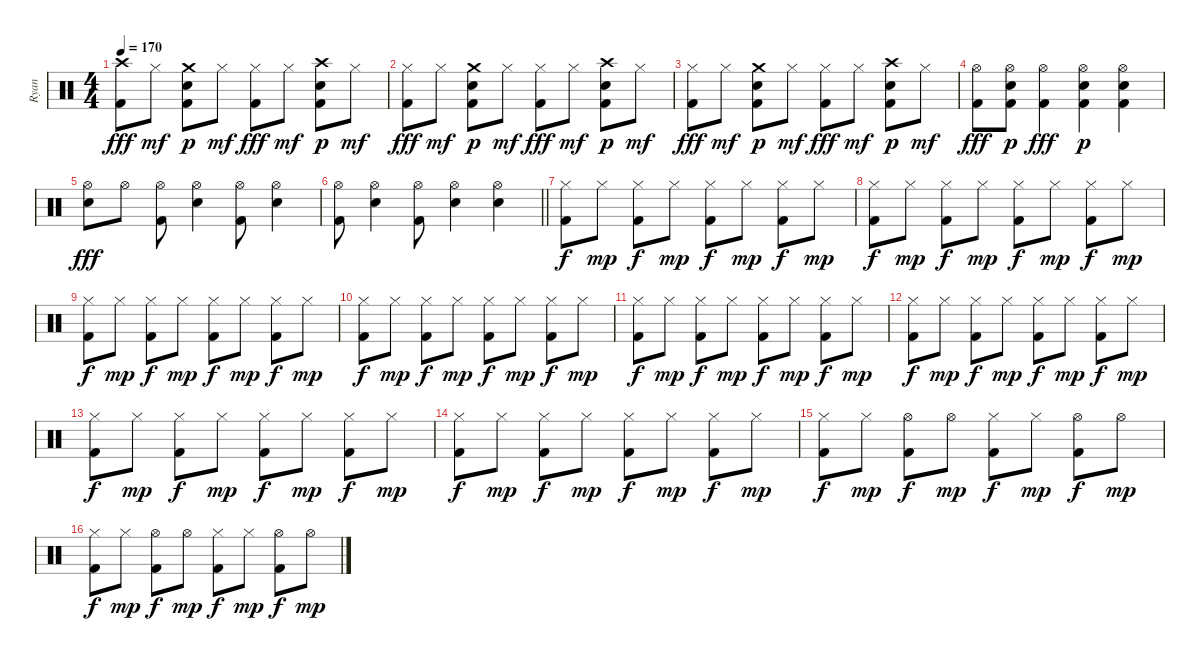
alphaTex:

\track ("Ryan" "Ryan") {instrument percussion}
\staff {score}
\articulation defaults
\ts (4 4)
\tempo 170
\clef neutral
\ks c
("Kick (hit) 2" "Crash high (hit)").8{dy fff} "Hi-Hat (closed)".8{dy mf} ("Snare (hit) 2" "Crash medium (hit)" "Kick (hit) 2").8{dy p} "Hi-Hat (closed)".8{dy mf} ("Kick (hit) 2" "Hi-Hat (closed)").8{dy fff} "Hi-Hat (closed)".8{dy mf} ("Snare (hit) 2" "Crash high (hit)" "Kick (hit) 2").8{dy p} "Hi-Hat (closed)".8{dy mf} |
("Kick (hit) 2" "Hi-Hat (closed)").8{dy fff} "Hi-Hat (closed)".8{dy mf} ("Snare (hit) 2" "Crash medium (hit)" "Kick (hit) 2").8{dy p} "Hi-Hat (closed)".8{dy mf} ("Kick (hit) 2" "Hi-Hat (closed)").8{dy fff} "Hi-Hat (closed)".8{dy mf} ("Snare (hit) 2" "Crash high (hit)" "Kick (hit) 2").8{dy p} "Hi-Hat (closed)".8{dy mf} |
("Kick (hit) 2" "Hi-Hat (closed)").8{dy fff} "Hi-Hat (closed)".8{dy mf} ("Snare (hit) 2" "Crash medium (hit)" "Kick (hit) 2").8{dy p} "Hi-Hat (closed)".8{dy mf} ("Kick (hit) 2" "Hi-Hat (closed)").8{dy fff} "Hi-Hat (closed)".8{dy mf} ("Snare (hit) 2" "Crash high (hit)" "Kick (hit) 2").8{dy p} "Hi-Hat (closed)".8{dy mf} |
("Kick (hit) 2" "Hi-Hat (open)").8{dy fff} ("Snare (hit) 2" "Hi-Hat (open)" "Kick (hit) 2").8{dy p} ("Kick (hit) 2" "Hi-Hat (open)").4{dy fff} ("Snare (hit) 2" "Hi-Hat (open)" "Kick (hit) 2").4{dy p} ("Snare (hit) 2" "Hi-Hat (open)" "Kick (hit) 2").4 |
("Hi-Hat (open)" "Snare (hit) 2").8{dy fff} "Hi-Hat (open)".8 ("Hi-Hat (open)" "Kick (hit) 2").8 ("Hi-Hat (open)" "Snare (hit) 2").4 ("Hi-Hat (open)" "Kick (hit) 2").8 ("Hi-Hat (open)" "Snare (hit) 2").4 |
\barLineRight lightlight
("Hi-Hat (open)" "Kick (hit) 2").8 ("Hi-Hat (open)" "Snare (hit) 2").4 ("Hi-Hat (open)" "Kick (hit) 2").8 ("Hi-Hat (open)" "Snare (hit) 2").4 ("Hi-Hat (open)" "Snare (hit) 2").4 |
("Hi-Hat (closed)" "Kick (hit) 2").8{dy f} "Hi-Hat (closed)".8{dy mp} ("Hi-Hat (closed)" "Kick (hit) 2").8{dy f} "Hi-Hat (closed)".8{dy mp} ("Hi-Hat (closed)" "Kick (hit) 2").8{dy f} "Hi-Hat (closed)".8{dy mp} ("Hi-Hat (closed)" "Kick (hit) 2").8{dy f} "Hi-Hat (closed)".8{dy mp} |
("Hi-Hat (closed)" "Kick (hit) 2").8{dy f} "Hi-Hat (closed)".8{dy mp} ("Hi-Hat (closed)" "Kick (hit) 2").8{dy f} "Hi-Hat (closed)".8{dy mp} ("Hi-Hat (closed)" "Kick (hit) 2").8{dy f} "Hi-Hat (closed)".8{dy mp} ("Hi-Hat (closed)" "Kick (hit) 2").8{dy f} "Hi-Hat (closed)".8{dy mp} |
("Hi-Hat (closed)" "Kick (hit) 2").8{dy f} "Hi-Hat (closed)".8{dy mp} ("Hi-Hat (closed)" "Kick (hit) 2").8{dy f} "Hi-Hat (closed)".8{dy mp} ("Hi-Hat (closed)" "Kick (hit) 2").8{dy f} "Hi-Hat (closed)".8{dy mp} ("Hi-Hat (closed)" "Kick (hit) 2").8{dy f} "Hi-Hat (closed)".8{dy mp} |
("Hi-Hat (closed)" "Kick (hit) 2").8{dy f} "Hi-Hat (closed)".8{dy mp} ("Hi-Hat (closed)" "Kick (hit) 2").8{dy f} "Hi-Hat (closed)".8{dy mp} ("Hi-Hat (closed)" "Kick (hit) 2").8{dy f} "Hi-Hat (closed)".8{dy mp} ("Hi-Hat (closed)" "Kick (hit) 2").8{dy f} "Hi-Hat (closed)".8{dy mp} |
("Hi-Hat (closed)" "Kick (hit) 2").8{dy f} "Hi-Hat (closed)".8{dy mp} ("Hi-Hat (closed)" "Kick (hit) 2").8{dy f} "Hi-Hat (closed)".8{dy mp} ("Hi-Hat (closed)" "Kick (hit) 2").8{dy f} "Hi-Hat (closed)".8{dy mp} ("Hi-Hat (closed)" "Kick (hit) 2").8{dy f} "Hi-Hat (closed)".8{dy mp} |
("Hi-Hat (closed)" "Kick (hit) 2").8{dy f} "Hi-Hat (closed)".8{dy mp} ("Hi-Hat (closed)" "Kick (hit) 2").8{dy f} "Hi-Hat (closed)".8{dy mp} ("Hi-Hat (closed)" "Kick (hit) 2").8{dy f} "Hi-Hat (closed)".8{dy mp} ("Hi-Hat (closed)" "Kick (hit) 2").8{dy f} "Hi-Hat (closed)".8{dy mp} |
("Hi-Hat (closed)" "Kick (hit) 2").8{dy f} "Hi-Hat (closed)".8{dy mp} ("Hi-Hat (closed)" "Kick (hit) 2").8{dy f} "Hi-Hat (closed)".8{dy mp} ("Hi-Hat (closed)" "Kick (hit) 2").8{dy f} "Hi-Hat (closed)".8{dy mp} ("Hi-Hat (closed)" "Kick (hit) 2").8{dy f} "Hi-Hat (closed)".8{dy mp} |
("Hi-Hat (closed)" "Kick (hit) 2").8{dy f} "Hi-Hat (closed)".8{dy mp} ("Hi-Hat (closed)" "Kick (hit) 2").8{dy f} "Hi-Hat (closed)".8{dy mp} ("Hi-Hat (closed)" "Kick (hit) 2").8{dy f} "Hi-Hat (closed)".8{dy mp} ("Hi-Hat (closed)" "Kick (hit) 2").8{dy f} "Hi-Hat (closed)".8{dy mp} |
("Hi-Hat (closed)" "Kick (hit) 2").8{dy f} "Hi-Hat (closed)".8{dy mp} ("Hi-Hat (open)" "Kick (hit) 2").8{dy f} "Hi-Hat (open)".8{dy mp} ("Hi-Hat (closed)" "Kick (hit) 2").8{dy f} "Hi-Hat (closed)".8{dy mp} ("Hi-Hat (open)" "Kick (hit) 2").8{dy f} "Hi-Hat (open)".8{dy mp} |
("Hi-Hat (closed)" "Kick (hit) 2").8{dy f} "Hi-Hat (closed)".8{dy mp} ("Hi-Hat (open)" "Kick (hit) 2").8{dy f} "Hi-Hat (open)".8{dy mp} ("Hi-Hat (closed)" "Kick (hit) 2").8{dy f} "Hi-Hat (closed)".8{dy mp} ("Hi-Hat (open)" "Kick (hit) 2").8{dy f} "Hi-Hat (open)".8{dy mp}
